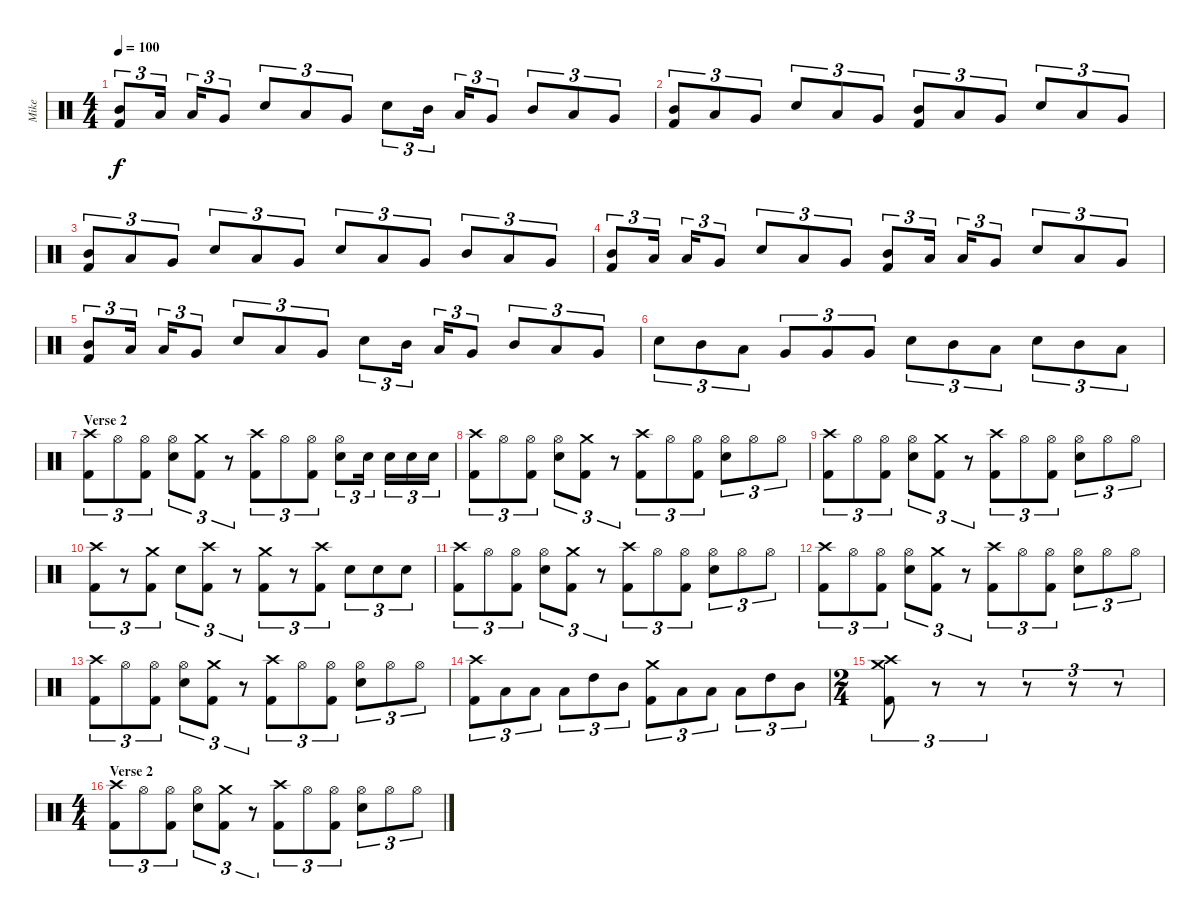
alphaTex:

\track ("Mike" "Mike") {instrument percussion}
\staff {score}
\articulation defaults
\ts (4 4)
\tempo 100
\clef neutral
\ks c
("Mid Tom (hit)" "Kick (hit) 2").8{tu (3 2) dy f} "Low Tom (hit)".16{tu (3 2)} "Low Tom (hit)".16{tu (3 2)} "Very Low Tom (hit)".8{tu (3 2)} "Electric Snare (hit)".8{tu (3 2)} "Low Tom (hit)".8{tu (3 2)} "Very Low Tom (hit)".8{tu (3 2)} "Electric Snare (hit)".8{tu (3 2)} "Mid Tom (hit)".16{tu (3 2)} "Low Tom (hit)".16{tu (3 2)} "Very Low Tom (hit)".8{tu (3 2)} "Mid Tom (hit)".8{tu (3 2)} "Low Tom (hit)".8{tu (3 2)} "Very Low Tom (hit)".8{tu (3 2)} |
("Mid Tom (hit)" "Kick (hit) 2").8{tu (3 2)} "Low Tom (hit)".8{tu (3 2)} "Very Low Tom (hit)".8{tu (3 2)} "Electric Snare (hit)".8{tu (3 2)} "Low Tom (hit)".8{tu (3 2)} "Very Low Tom (hit)".8{tu (3 2)} ("Mid Tom (hit)" "Kick (hit) 2").8{tu (3 2)} "Low Tom (hit)".8{tu (3 2)} "Very Low Tom (hit)".8{tu (3 2)} "Electric Snare (hit)".8{tu (3 2)} "Low Tom (hit)".8{tu (3 2)} "Very Low Tom (hit)".8{tu (3 2)} |
("Mid Tom (hit)" "Kick (hit) 2").8{tu (3 2)} "Low Tom (hit)".8{tu (3 2)} "Very Low Tom (hit)".8{tu (3 2)} "Electric Snare (hit)".8{tu (3 2)} "Low Tom (hit)".8{tu (3 2)} "Very Low Tom (hit)".8{tu (3 2)} "Electric Snare (hit)".8{tu (3 2)} "Low Tom (hit)".8{tu (3 2)} "Very Low Tom (hit)".8{tu (3 2)} "Mid Tom (hit)".8{tu (3 2)} "Low Tom (hit)".8{tu (3 2)} "Very Low Tom (hit)".8{tu (3 2)} |
("Mid Tom (hit)" "Kick (hit) 2").8{tu (3 2)} "Low Tom (hit)".16{tu (3 2)} "Low Tom (hit)".16{tu (3 2)} "Very Low Tom (hit)".8{tu (3 2)} "Electric Snare (hit)".8{tu (3 2)} "Low Tom (hit)".8{tu (3 2)} "Very Low Tom (hit)".8{tu (3 2)} ("Mid Tom (hit)" "Kick (hit) 2").8{tu (3 2)} "Low Tom (hit)".16{tu (3 2)} "Low Tom (hit)".16{tu (3 2)} "Very Low Tom (hit)".8{tu (3 2)} "Electric Snare (hit)".8{tu (3 2)} "Low Tom (hit)".8{tu (3 2)} "Very Low Tom (hit)".8{tu (3 2)} |
("Mid Tom (hit)" "Kick (hit) 2").8{tu (3 2)} "Low Tom (hit)".16{tu (3 2)} "Low Tom (hit)".16{tu (3 2)} "Very Low Tom (hit)".8{tu (3 2)} "Electric Snare (hit)".8{tu (3 2)} "Low Tom (hit)".8{tu (3 2)} "Very Low Tom (hit)".8{tu (3 2)} "Electric Snare (hit)".8{tu (3 2)} "Mid Tom (hit)".16{tu (3 2)} "Low Tom (hit)".16{tu (3 2)} "Very Low Tom (hit)".8{tu (3 2)} "Mid Tom (hit)".8{tu (3 2)} "Low Tom (hit)".8{tu (3 2)} "Very Low Tom (hit)".8{tu (3 2)} |
"Electric Snare (hit)".8{tu (3 2)} "Mid Tom (hit)".8{tu (3 2)} "Low Tom (hit)".8{tu (3 2)} "Very Low Tom (hit)".8{tu (3 2)} "Very Low Tom (hit)".8{tu (3 2)} "Very Low Tom (hit)".8{tu (3 2)} "Electric Snare (hit)".8{tu (3 2)} "Mid Tom (hit)".8{tu (3 2)} "Low Tom (hit)".8{tu (3 2)} "Electric Snare (hit)".8{tu (3 2)} "Mid Tom (hit)".8{tu (3 2)} "Low Tom (hit)".8{tu (3 2)} |
\section ("" "Verse 2")
("Crash high (hit)" "Kick (hit) 2").8{tu (3 2)} "Hi-Hat (open)".8{tu (3 2)} ("Hi-Hat (open)" "Kick (hit) 2").8{tu (3 2)} ("Hi-Hat (open)" "Electric Snare (hit)").8{tu (3 2)} ("Crash medium (hit)" "Kick (hit) 2").8{tu (3 2)} r.8{tu (3 2)} ("Crash high (hit)" "Kick (hit) 2").8{tu (3 2)} "Hi-Hat (open)".8{tu (3 2)} ("Hi-Hat (open)" "Kick (hit) 2").8{tu (3 2)} ("Hi-Hat (open)" "Electric Snare (hit)").8{tu (3 2)} "Electric Snare (hit)".16{tu (3 2)} "Electric Snare (hit)".16{tu (3 2)} "Electric Snare (hit)".16{tu (3 2)} "Electric Snare (hit)".16{tu (3 2)} |
("Crash high (hit)" "Kick (hit) 2").8{tu (3 2)} "Hi-Hat (open)".8{tu (3 2)} ("Hi-Hat (open)" "Kick (hit) 2").8{tu (3 2)} ("Hi-Hat (open)" "Electric Snare (hit)").8{tu (3 2)} ("Crash medium (hit)" "Kick (hit) 2").8{tu (3 2)} r.8{tu (3 2)} ("Crash high (hit)" "Kick (hit) 2").8{tu (3 2)} "Hi-Hat (open)".8{tu (3 2)} ("Hi-Hat (open)" "Kick (hit) 2").8{tu (3 2)} ("Hi-Hat (open)" "Electric Snare (hit)").8{tu (3 2)} "Hi-Hat (open)".8{tu (3 2)} "Hi-Hat (open)".8{tu (3 2)} |
("Crash high (hit)" "Kick (hit) 2").8{tu (3 2)} "Hi-Hat (open)".8{tu (3 2)} ("Hi-Hat (open)" "Kick (hit) 2").8{tu (3 2)} ("Hi-Hat (open)" "Electric Snare (hit)").8{tu (3 2)} ("Crash medium (hit)" "Kick (hit) 2").8{tu (3 2)} r.8{tu (3 2)} ("Crash high (hit)" "Kick (hit) 2").8{tu (3 2)} "Hi-Hat (open)".8{tu (3 2)} ("Hi-Hat (open)" "Kick (hit) 2").8{tu (3 2)} ("Hi-Hat (open)" "Electric Snare (hit)").8{tu (3 2)} "Hi-Hat (open)".8{tu (3 2)} "Hi-Hat (open)".8{tu (3 2)} |
("Crash high (hit)" "Kick (hit) 2").8{tu (3 2)} r.8{tu (3 2)} ("Crash medium (hit)" "Kick (hit) 2").8{tu (3 2)} "Electric Snare (hit)".8{tu (3 2)} ("Crash high (hit)" "Kick (hit) 2").8{tu (3 2)} r.8{tu (3 2)} ("Crash medium (hit)" "Kick (hit) 2").8{tu (3 2)} r.8{tu (3 2)} ("Crash high (hit)" "Kick (hit) 2").8{tu (3 2)} "Electric Snare (hit)".8{tu (3 2)} "Electric Snare (hit)".8{tu (3 2)} "Electric Snare (hit)".8{tu (3 2)} |
("Crash high (hit)" "Kick (hit) 2").8{tu (3 2)} "Hi-Hat (open)".8{tu (3 2)} ("Hi-Hat (open)" "Kick (hit) 2").8{tu (3 2)} ("Hi-Hat (open)" "Electric Snare (hit)").8{tu (3 2)} ("Crash medium (hit)" "Kick (hit) 2").8{tu (3 2)} r.8{tu (3 2)} ("Crash high (hit)" "Kick (hit) 2").8{tu (3 2)} "Hi-Hat (open)".8{tu (3 2)} ("Hi-Hat (open)" "Kick (hit) 2").8{tu (3 2)} ("Hi-Hat (open)" "Electric Snare (hit)").8{tu (3 2)} "Hi-Hat (open)".8{tu (3 2)} "Hi-Hat (open)".8{tu (3 2)} |
("Crash high (hit)" "Kick (hit) 2").8{tu (3 2)} "Hi-Hat (open)".8{tu (3 2)} ("Hi-Hat (open)" "Kick (hit) 2").8{tu (3 2)} ("Hi-Hat (open)" "Electric Snare (hit)").8{tu (3 2)} ("Crash medium (hit)" "Kick (hit) 2").8{tu (3 2)} r.8{tu (3 2)} ("Crash high (hit)" "Kick (hit) 2").8{tu (3 2)} "Hi-Hat (open)".8{tu (3 2)} ("Hi-Hat (open)" "Kick (hit) 2").8{tu (3 2)} ("Hi-Hat (open)" "Electric Snare (hit)").8{tu (3 2)} "Hi-Hat (open)".8{tu (3 2)} "Hi-Hat (open)".8{tu (3 2)} |
("Crash high (hit)" "Kick (hit) 2").8{tu (3 2)} "Hi-Hat (open)".8{tu (3 2)} ("Hi-Hat (open)" "Kick (hit) 2").8{tu (3 2)} ("Hi-Hat (open)" "Electric Snare (hit)").8{tu (3 2)} ("Crash medium (hit)" "Kick (hit) 2").8{tu (3 2)} r.8{tu (3 2)} ("Crash high (hit)" "Kick (hit) 2").8{tu (3 2)} "Hi-Hat (open)".8{tu (3 2)} ("Hi-Hat (open)" "Kick (hit) 2").8{tu (3 2)} ("Hi-Hat (open)" "Electric Snare (hit)").8{tu (3 2)} "Hi-Hat (open)".8{tu (3 2)} "Hi-Hat (open)".8{tu (3 2)} |
("Crash high (hit)" "Kick (hit) 2").8{tu (3 2)} "Low Tom (hit)".8{tu (3 2)} "Low Tom (hit)".8{tu (3 2)} "Low Tom (hit)".8{tu (3 2)} "High Tom (hit)".8{tu (3 2)} "Mid Tom (hit)".8{tu (3 2)} ("Crash medium (hit)" "Kick (hit) 2").8{tu (3 2)} "Low Tom (hit)".8{tu (3 2)} "Low Tom (hit)".8{tu (3 2)} "Low Tom (hit)".8{tu (3 2)} "High Tom (hit)".8{tu (3 2)} "Mid Tom (hit)".8{tu (3 2)} |
\ts (2 4)
("Crash medium (hit)" "Crash high (hit)" "Kick (hit) 2").8{tu (3 2)} r.8{tu (3 2)} r.8{tu (3 2)} r.8{tu (3 2)} r.8{tu (3 2)} r.8{tu (3 2)} |
\ts (4 4)
\section ("" "Verse 2")
("Crash high (hit)" "Kick (hit) 2").8{tu (3 2)} "Hi-Hat (open)".8{tu (3 2)} ("Hi-Hat (open)" "Kick (hit) 2").8{tu (3 2)} ("Hi-Hat (open)" "Electric Snare (hit)").8{tu (3 2)} ("Crash medium (hit)" "Kick (hit) 2").8{tu (3 2)} r.8{tu (3 2)} ("Crash high (hit)" "Kick (hit) 2").8{tu (3 2)} "Hi-Hat (open)".8{tu (3 2)} ("Hi-Hat (open)" "Kick (hit) 2").8{tu (3 2)} ("Hi-Hat (open)" "Electric Snare (hit)").8{tu (3 2)} "Hi-Hat (open)".8{tu (3 2)} "Hi-Hat (open)".8{tu (3 2)}
